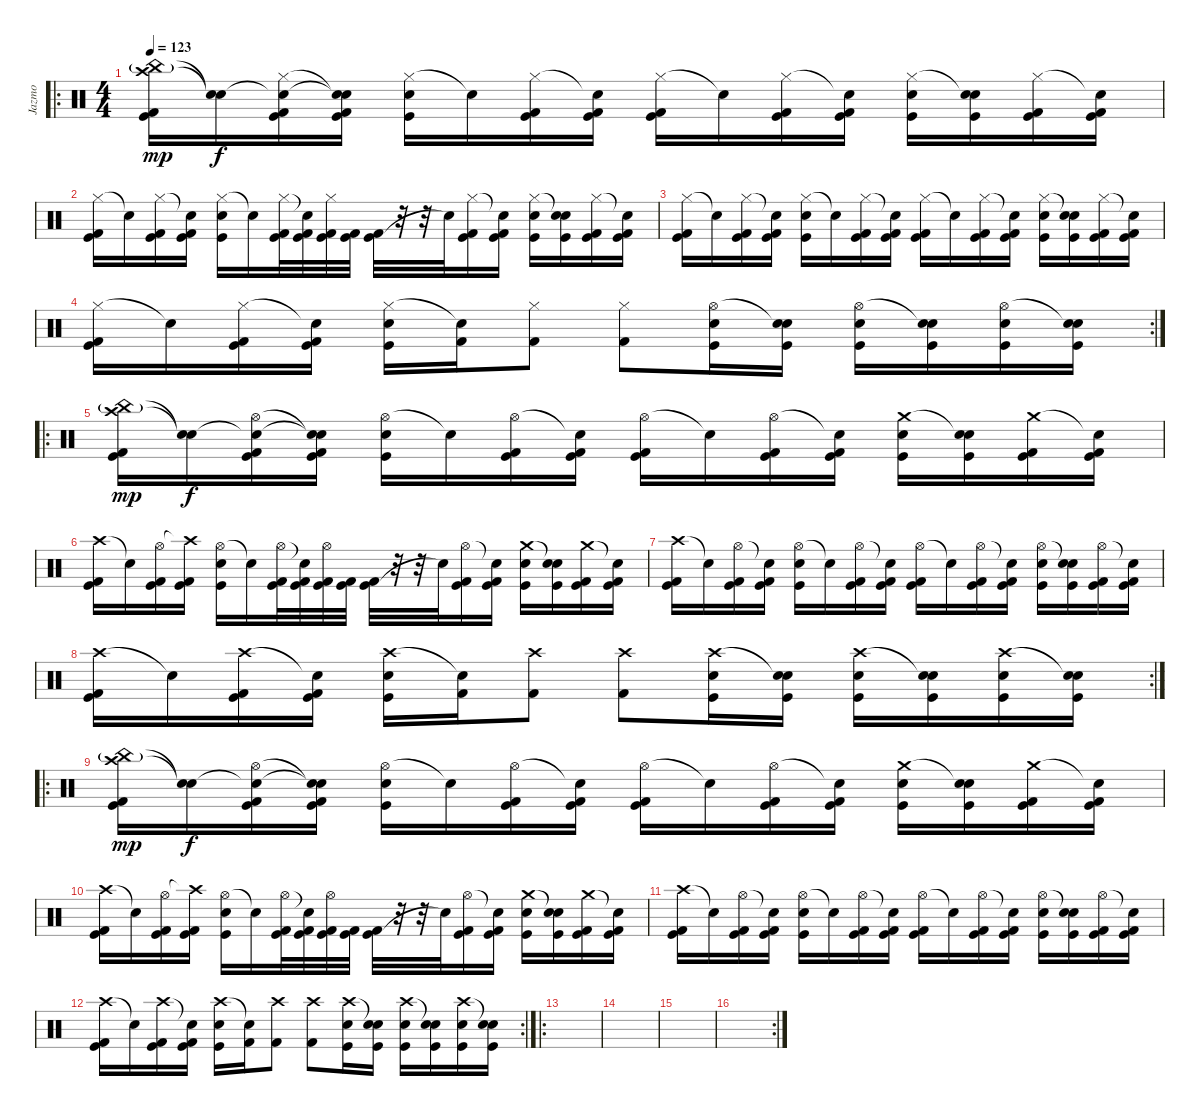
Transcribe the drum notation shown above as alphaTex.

\track ("Jazmo" "Jazmo") {instrument percussion}
\staff {score}
\articulation defaults
\ro
\ts (4 4)
\tempo 123
\clef neutral
\ks c
("Crash high (hit)" "China (hit)"{g} "Kick (hit)" "Kick (hit) 2").16{dy mp} ("Snare (hit)"{t} "Snare (hit)"{t}).16{dy f} ("Hi-Hat (closed)" "Snare (hit)"{t} "Kick (hit)" "Kick (hit) 2").16 ("Snare (hit)"{t} "Snare (hit)"{t} "Kick (hit)" "Kick (hit) 2").16 ("Hi-Hat (closed)" "Kick (hit)" "Electric Snare (hit)").16 "Snare (hit)"{t}.16 ("Hi-Hat (closed)" "Kick (hit)" "Kick (hit) 2").16 ("Snare (hit)"{t} "Kick (hit)" "Kick (hit) 2").16 ("Hi-Hat (closed)" "Kick (hit)" "Kick (hit) 2").16 "Snare (hit)"{t}.16 ("Hi-Hat (closed)" "Kick (hit)" "Kick (hit) 2").16 ("Snare (hit)"{t} "Kick (hit)" "Kick (hit) 2").16 ("Hi-Hat (closed)" "Kick (hit)" "Electric Snare (hit)").16 ("Snare (hit)"{t} "Kick (hit)" "Electric Snare (hit)").16 ("Hi-Hat (closed)" "Kick (hit)" "Kick (hit) 2").16 ("Snare (hit)"{t} "Kick (hit)" "Kick (hit) 2").16 |
("Hi-Hat (closed)" "Kick (hit)" "Kick (hit) 2").16 "Snare (hit)"{t}.16 ("Hi-Hat (closed)" "Kick (hit)" "Kick (hit) 2").16 ("Snare (hit)"{t} "Kick (hit)" "Kick (hit) 2").16 ("Hi-Hat (closed)" "Kick (hit)" "Electric Snare (hit)").16 "Snare (hit)"{t}.16 ("Hi-Hat (closed)" "Kick (hit)" "Kick (hit) 2").32 ("Snare (hit)"{t} "Kick (hit)" "Kick (hit) 2").32 ("Hi-Hat (closed)" "Kick (hit)" "Kick (hit) 2").32 ("Kick (hit)" "Kick (hit) 2").32 ("Kick (hit)" "Kick (hit) 2").32 r.32 r.32 "Snare (hit)"{t}.32 ("Hi-Hat (closed)" "Kick (hit)" "Kick (hit) 2").16 ("Snare (hit)"{t} "Kick (hit)" "Kick (hit) 2").16 ("Hi-Hat (closed)" "Kick (hit)" "Electric Snare (hit)").16 ("Snare (hit)"{t} "Kick (hit)" "Electric Snare (hit)").16 ("Hi-Hat (closed)" "Kick (hit)" "Kick (hit) 2").16 ("Snare (hit)"{t} "Kick (hit)" "Kick (hit) 2").16 |
("Hi-Hat (closed)" "Kick (hit)" "Kick (hit) 2").16 "Snare (hit)"{t}.16 ("Hi-Hat (closed)" "Kick (hit)" "Kick (hit) 2").16 ("Snare (hit)"{t} "Kick (hit)" "Kick (hit) 2").16 ("Hi-Hat (closed)" "Kick (hit)" "Electric Snare (hit)").16 "Snare (hit)"{t}.16 ("Hi-Hat (closed)" "Kick (hit)" "Kick (hit) 2").16 ("Snare (hit)"{t} "Kick (hit)" "Kick (hit) 2").16 ("Hi-Hat (closed)" "Kick (hit)" "Kick (hit) 2").16 "Snare (hit)"{t}.16 ("Hi-Hat (closed)" "Kick (hit)" "Kick (hit) 2").16 ("Snare (hit)"{t} "Kick (hit)" "Kick (hit) 2").16 ("Hi-Hat (closed)" "Kick (hit)" "Electric Snare (hit)").16 ("Snare (hit)"{t} "Kick (hit)" "Electric Snare (hit)").16 ("Hi-Hat (closed)" "Kick (hit)" "Kick (hit) 2").16 ("Snare (hit)"{t} "Kick (hit)" "Kick (hit) 2").16 |
\rc 2
("Hi-Hat (closed)" "Kick (hit)" "Kick (hit) 2").16 "Snare (hit)"{t}.16 ("Hi-Hat (closed)" "Kick (hit)" "Kick (hit) 2").16 ("Snare (hit)"{t} "Kick (hit)" "Kick (hit) 2").16 ("Hi-Hat (closed)" "Kick (hit)" "Electric Snare (hit)").16 ("Snare (hit)"{t} "Kick (hit) 2").16 ("Hi-Hat (closed)" "Kick (hit) 2").8 ("Hi-Hat (closed)" "Kick (hit) 2").8 ("Hi-Hat (open)" "Kick (hit)" "Electric Snare (hit)").16 ("Snare (hit)"{t} "Kick (hit)" "Electric Snare (hit)").16 ("Hi-Hat (open)" "Kick (hit)" "Electric Snare (hit)").16 ("Snare (hit)"{t} "Kick (hit)" "Electric Snare (hit)").16 ("Hi-Hat (open)" "Kick (hit)" "Electric Snare (hit)").16 ("Snare (hit)"{t} "Kick (hit)" "Electric Snare (hit)").16 |
\ro
("Crash high (hit)" "China (hit)"{g} "Kick (hit)" "Kick (hit) 2").16{dy mp} ("Snare (hit)"{t} "Snare (hit)"{t}).16{dy f} ("Hi-Hat (open)" "Snare (hit)"{t} "Kick (hit)" "Kick (hit) 2").16 ("Snare (hit)"{t} "Snare (hit)"{t} "Kick (hit)" "Kick (hit) 2").16 ("Hi-Hat (open)" "Kick (hit)" "Electric Snare (hit)").16 "Snare (hit)"{t}.16 ("Hi-Hat (open)" "Kick (hit)" "Kick (hit) 2").16 ("Snare (hit)"{t} "Kick (hit)" "Kick (hit) 2").16 ("Hi-Hat (open)" "Kick (hit)" "Kick (hit) 2").16 "Snare (hit)"{t}.16 ("Hi-Hat (open)" "Kick (hit)" "Kick (hit) 2").16 ("Snare (hit)"{t} "Kick (hit)" "Kick (hit) 2").16 ("Crash medium (hit)" "Kick (hit)" "Electric Snare (hit)").16 ("Snare (hit)"{t} "Kick (hit)" "Electric Snare (hit)").16 ("Crash medium (hit)" "Kick (hit)" "Kick (hit) 2").16 ("Snare (hit)"{t} "Kick (hit)" "Kick (hit) 2").16 |
("Crash high (hit)" "Kick (hit)" "Kick (hit) 2").16 "Snare (hit)"{t}.16 ("Hi-Hat (open)" "Kick (hit)" "Kick (hit) 2").16 ("Crash high (hit)"{t} "Kick (hit)" "Kick (hit) 2").16 ("Hi-Hat (open)" "Kick (hit)" "Electric Snare (hit)").16 "Snare (hit)"{t}.16 ("Hi-Hat (open)" "Kick (hit)" "Kick (hit) 2").32 ("Snare (hit)"{t} "Kick (hit)" "Kick (hit) 2").32 ("Hi-Hat (open)" "Kick (hit)" "Kick (hit) 2").32 ("Kick (hit)" "Kick (hit) 2").32 ("Kick (hit)" "Kick (hit) 2").32 r.32 r.32 "Snare (hit)"{t}.32 ("Hi-Hat (open)" "Kick (hit)" "Kick (hit) 2").16 ("Snare (hit)"{t} "Kick (hit)" "Kick (hit) 2").16 ("Crash medium (hit)" "Kick (hit)" "Electric Snare (hit)").16 ("Snare (hit)"{t} "Kick (hit)" "Electric Snare (hit)").16 ("Crash medium (hit)" "Kick (hit)" "Kick (hit) 2").16 ("Snare (hit)"{t} "Kick (hit)" "Kick (hit) 2").16 |
("Crash high (hit)" "Kick (hit)" "Kick (hit) 2").16 "Snare (hit)"{t}.16 ("Hi-Hat (open)" "Kick (hit)" "Kick (hit) 2").16 ("Snare (hit)"{t} "Kick (hit)" "Kick (hit) 2").16 ("Hi-Hat (open)" "Kick (hit)" "Electric Snare (hit)").16 "Snare (hit)"{t}.16 ("Hi-Hat (open)" "Kick (hit)" "Kick (hit) 2").16 ("Snare (hit)"{t} "Kick (hit)" "Kick (hit) 2").16 ("Hi-Hat (open)" "Kick (hit)" "Kick (hit) 2").16 "Snare (hit)"{t}.16 ("Hi-Hat (open)" "Kick (hit)" "Kick (hit) 2").16 ("Snare (hit)"{t} "Kick (hit)" "Kick (hit) 2").16 ("Hi-Hat (open)" "Kick (hit)" "Electric Snare (hit)").16 ("Snare (hit)"{t} "Kick (hit)" "Electric Snare (hit)").16 ("Hi-Hat (open)" "Kick (hit)" "Kick (hit) 2").16 ("Snare (hit)"{t} "Kick (hit)" "Kick (hit) 2").16 |
\rc 2
("Crash high (hit)" "Kick (hit)" "Kick (hit) 2").16 "Snare (hit)"{t}.16 ("Crash high (hit)" "Kick (hit)" "Kick (hit) 2").16 ("Snare (hit)"{t} "Kick (hit)" "Kick (hit) 2").16 ("Crash high (hit)" "Kick (hit)" "Electric Snare (hit)").16 ("Snare (hit)"{t} "Kick (hit) 2").16 ("Crash high (hit)" "Kick (hit) 2").8 ("Crash high (hit)" "Kick (hit) 2").8 ("Crash high (hit)" "Kick (hit)" "Electric Snare (hit)").16 ("Snare (hit)"{t} "Kick (hit)" "Electric Snare (hit)").16 ("Crash high (hit)" "Kick (hit)" "Electric Snare (hit)").16 ("Snare (hit)"{t} "Kick (hit)" "Electric Snare (hit)").16 ("Crash high (hit)" "Kick (hit)" "Electric Snare (hit)").16 ("Snare (hit)"{t} "Kick (hit)" "Electric Snare (hit)").16 |
\ro
("Crash high (hit)" "China (hit)"{g} "Kick (hit)" "Kick (hit) 2").16{dy mp} ("Snare (hit)"{t} "Snare (hit)"{t}).16{dy f} ("Hi-Hat (open)" "Snare (hit)"{t} "Kick (hit)" "Kick (hit) 2").16 ("Snare (hit)"{t} "Snare (hit)"{t} "Kick (hit)" "Kick (hit) 2").16 ("Hi-Hat (open)" "Kick (hit)" "Electric Snare (hit)").16 "Snare (hit)"{t}.16 ("Hi-Hat (open)" "Kick (hit)" "Kick (hit) 2").16 ("Snare (hit)"{t} "Kick (hit)" "Kick (hit) 2").16 ("Hi-Hat (open)" "Kick (hit)" "Kick (hit) 2").16 "Snare (hit)"{t}.16 ("Hi-Hat (open)" "Kick (hit)" "Kick (hit) 2").16 ("Snare (hit)"{t} "Kick (hit)" "Kick (hit) 2").16 ("Crash medium (hit)" "Kick (hit)" "Electric Snare (hit)").16 ("Snare (hit)"{t} "Kick (hit)" "Electric Snare (hit)").16 ("Crash medium (hit)" "Kick (hit)" "Kick (hit) 2").16 ("Snare (hit)"{t} "Kick (hit)" "Kick (hit) 2").16 |
("Crash high (hit)" "Kick (hit)" "Kick (hit) 2").16 "Snare (hit)"{t}.16 ("Hi-Hat (open)" "Kick (hit)" "Kick (hit) 2").16 ("Crash high (hit)"{t} "Kick (hit)" "Kick (hit) 2").16 ("Hi-Hat (open)" "Kick (hit)" "Electric Snare (hit)").16 "Snare (hit)"{t}.16 ("Hi-Hat (open)" "Kick (hit)" "Kick (hit) 2").32 ("Snare (hit)"{t} "Kick (hit)" "Kick (hit) 2").32 ("Hi-Hat (open)" "Kick (hit)" "Kick (hit) 2").32 ("Kick (hit)" "Kick (hit) 2").32 ("Kick (hit)" "Kick (hit) 2").32 r.32 r.32 "Snare (hit)"{t}.32 ("Hi-Hat (open)" "Kick (hit)" "Kick (hit) 2").16 ("Snare (hit)"{t} "Kick (hit)" "Kick (hit) 2").16 ("Crash medium (hit)" "Kick (hit)" "Electric Snare (hit)").16 ("Snare (hit)"{t} "Kick (hit)" "Electric Snare (hit)").16 ("Crash medium (hit)" "Kick (hit)" "Kick (hit) 2").16 ("Snare (hit)"{t} "Kick (hit)" "Kick (hit) 2").16 |
("Crash high (hit)" "Kick (hit)" "Kick (hit) 2").16 "Snare (hit)"{t}.16 ("Hi-Hat (open)" "Kick (hit)" "Kick (hit) 2").16 ("Snare (hit)"{t} "Kick (hit)" "Kick (hit) 2").16 ("Hi-Hat (open)" "Kick (hit)" "Electric Snare (hit)").16 "Snare (hit)"{t}.16 ("Hi-Hat (open)" "Kick (hit)" "Kick (hit) 2").16 ("Snare (hit)"{t} "Kick (hit)" "Kick (hit) 2").16 ("Hi-Hat (open)" "Kick (hit)" "Kick (hit) 2").16 "Snare (hit)"{t}.16 ("Hi-Hat (open)" "Kick (hit)" "Kick (hit) 2").16 ("Snare (hit)"{t} "Kick (hit)" "Kick (hit) 2").16 ("Hi-Hat (open)" "Kick (hit)" "Electric Snare (hit)").16 ("Snare (hit)"{t} "Kick (hit)" "Electric Snare (hit)").16 ("Hi-Hat (open)" "Kick (hit)" "Kick (hit) 2").16 ("Snare (hit)"{t} "Kick (hit)" "Kick (hit) 2").16 |
\rc 2
("Crash high (hit)" "Kick (hit)" "Kick (hit) 2").16 "Snare (hit)"{t}.16 ("Crash high (hit)" "Kick (hit)" "Kick (hit) 2").16 ("Snare (hit)"{t} "Kick (hit)" "Kick (hit) 2").16 ("Crash high (hit)" "Kick (hit)" "Electric Snare (hit)").16 ("Snare (hit)"{t} "Kick (hit) 2").16 ("Crash high (hit)" "Kick (hit) 2").8 ("Crash high (hit)" "Kick (hit) 2").8 ("Crash high (hit)" "Kick (hit)" "Electric Snare (hit)").16 ("Snare (hit)"{t} "Kick (hit)" "Electric Snare (hit)").16 ("Crash high (hit)" "Kick (hit)" "Electric Snare (hit)").16 ("Snare (hit)"{t} "Kick (hit)" "Electric Snare (hit)").16 ("Crash high (hit)" "Kick (hit)" "Electric Snare (hit)").16 ("Snare (hit)"{t} "Kick (hit)" "Electric Snare (hit)").16 |
\ro
|
|
|
\rc 2
